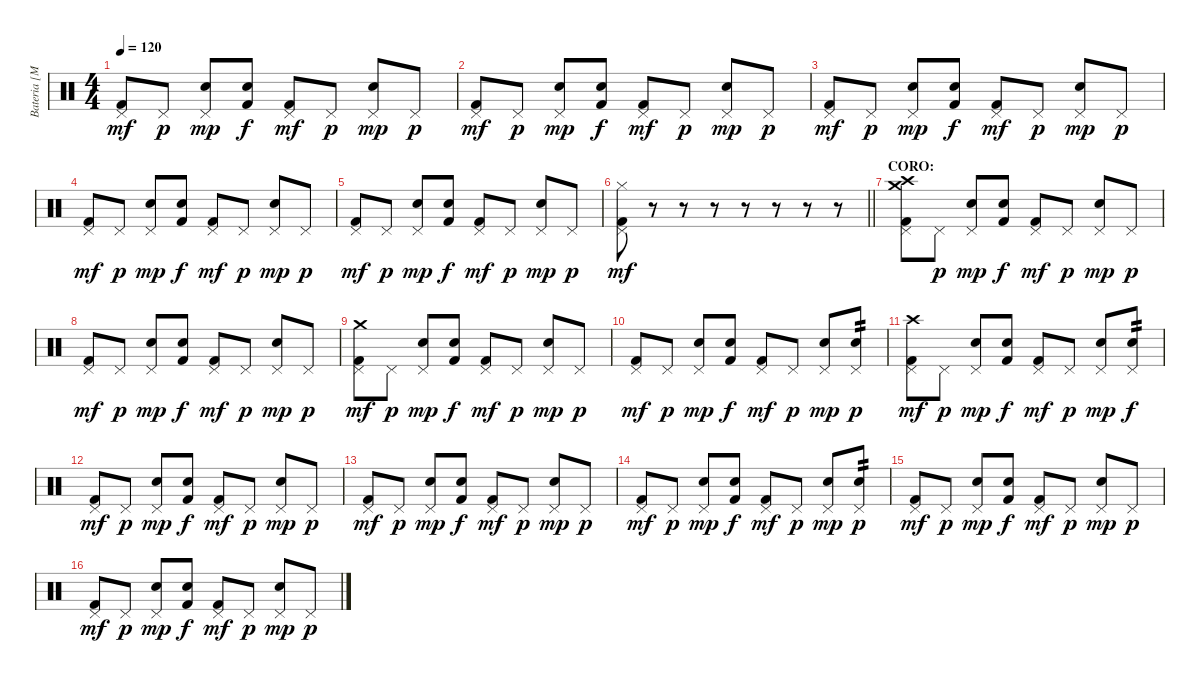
\track ("Bateria [Mauricio Basualto]" "Bateria [M") {instrument percussion}
\staff {score}
\articulation defaults
\ts (4 4)
\tempo 120
\clef neutral
\ks c
("Kick (hit) 2" "Pedal Hi-Hat (hit)").8{dy mf} "Pedal Hi-Hat (hit)".8{dy p} ("Electric Snare (hit)" "Pedal Hi-Hat (hit)").8{dy mp} ("Electric Snare (hit)" "Kick (hit) 2").8{dy f} ("Kick (hit) 2" "Pedal Hi-Hat (hit)").8{dy mf} "Pedal Hi-Hat (hit)".8{dy p} ("Electric Snare (hit)" "Pedal Hi-Hat (hit)").8{dy mp} "Pedal Hi-Hat (hit)".8{dy p} |
("Kick (hit) 2" "Pedal Hi-Hat (hit)").8{dy mf} "Pedal Hi-Hat (hit)".8{dy p} ("Electric Snare (hit)" "Pedal Hi-Hat (hit)").8{dy mp} ("Electric Snare (hit)" "Kick (hit) 2").8{dy f} ("Kick (hit) 2" "Pedal Hi-Hat (hit)").8{dy mf} "Pedal Hi-Hat (hit)".8{dy p} ("Electric Snare (hit)" "Pedal Hi-Hat (hit)").8{dy mp} "Pedal Hi-Hat (hit)".8{dy p} |
("Kick (hit) 2" "Pedal Hi-Hat (hit)").8{dy mf} "Pedal Hi-Hat (hit)".8{dy p} ("Electric Snare (hit)" "Pedal Hi-Hat (hit)").8{dy mp} ("Electric Snare (hit)" "Kick (hit) 2").8{dy f} ("Kick (hit) 2" "Pedal Hi-Hat (hit)").8{dy mf} "Pedal Hi-Hat (hit)".8{dy p} ("Electric Snare (hit)" "Pedal Hi-Hat (hit)").8{dy mp} "Pedal Hi-Hat (hit)".8{dy p} |
("Kick (hit) 2" "Pedal Hi-Hat (hit)").8{dy mf} "Pedal Hi-Hat (hit)".8{dy p} ("Electric Snare (hit)" "Pedal Hi-Hat (hit)").8{dy mp} ("Electric Snare (hit)" "Kick (hit) 2").8{dy f} ("Kick (hit) 2" "Pedal Hi-Hat (hit)").8{dy mf} "Pedal Hi-Hat (hit)".8{dy p} ("Electric Snare (hit)" "Pedal Hi-Hat (hit)").8{dy mp} "Pedal Hi-Hat (hit)".8{dy p} |
("Kick (hit) 2" "Pedal Hi-Hat (hit)").8{dy mf} "Pedal Hi-Hat (hit)".8{dy p} ("Electric Snare (hit)" "Pedal Hi-Hat (hit)").8{dy mp} ("Electric Snare (hit)" "Kick (hit) 2").8{dy f} ("Kick (hit) 2" "Pedal Hi-Hat (hit)").8{dy mf} "Pedal Hi-Hat (hit)".8{dy p} ("Electric Snare (hit)" "Pedal Hi-Hat (hit)").8{dy mp} "Pedal Hi-Hat (hit)".8{dy p} |
\barLineRight lightlight
("Kick (hit) 2" "Hi-Hat (closed)" "Pedal Hi-Hat (hit)").8{dy mf} r.8 r.8 r.8 r.8 r.8 r.8 r.8 |
\section ("" "CORO:")
("Kick (hit) 2" "Pedal Hi-Hat (hit)" "Crash medium (hit)" "Crash high (hit)").8 "Pedal Hi-Hat (hit)".8{dy p} ("Electric Snare (hit)" "Pedal Hi-Hat (hit)").8{dy mp} ("Electric Snare (hit)" "Kick (hit) 2").8{dy f} ("Kick (hit) 2" "Pedal Hi-Hat (hit)").8{dy mf} "Pedal Hi-Hat (hit)".8{dy p} ("Electric Snare (hit)" "Pedal Hi-Hat (hit)").8{dy mp} "Pedal Hi-Hat (hit)".8{dy p} |
("Kick (hit) 2" "Pedal Hi-Hat (hit)").8{dy mf} "Pedal Hi-Hat (hit)".8{dy p} ("Electric Snare (hit)" "Pedal Hi-Hat (hit)").8{dy mp} ("Electric Snare (hit)" "Kick (hit) 2").8{dy f} ("Kick (hit) 2" "Pedal Hi-Hat (hit)").8{dy mf} "Pedal Hi-Hat (hit)".8{dy p} ("Electric Snare (hit)" "Pedal Hi-Hat (hit)").8{dy mp} "Pedal Hi-Hat (hit)".8{dy p} |
("Kick (hit) 2" "Pedal Hi-Hat (hit)" "Crash medium (hit)").8{dy mf} "Pedal Hi-Hat (hit)".8{dy p} ("Electric Snare (hit)" "Pedal Hi-Hat (hit)").8{dy mp} ("Electric Snare (hit)" "Kick (hit) 2").8{dy f} ("Kick (hit) 2" "Pedal Hi-Hat (hit)").8{dy mf} "Pedal Hi-Hat (hit)".8{dy p} ("Electric Snare (hit)" "Pedal Hi-Hat (hit)").8{dy mp} "Pedal Hi-Hat (hit)".8{dy p} |
("Kick (hit) 2" "Pedal Hi-Hat (hit)").8{dy mf} "Pedal Hi-Hat (hit)".8{dy p} ("Electric Snare (hit)" "Pedal Hi-Hat (hit)").8{dy mp} ("Electric Snare (hit)" "Kick (hit) 2").8{dy f} ("Kick (hit) 2" "Pedal Hi-Hat (hit)").8{dy mf} "Pedal Hi-Hat (hit)".8{dy p} ("Electric Snare (hit)" "Pedal Hi-Hat (hit)").8{dy mp} ("Pedal Hi-Hat (hit)" "Electric Snare (hit)").8{tp 2 dy p} |
("Kick (hit) 2" "Pedal Hi-Hat (hit)" "Crash high (hit)").8{dy mf} "Pedal Hi-Hat (hit)".8{dy p} ("Electric Snare (hit)" "Pedal Hi-Hat (hit)").8{dy mp} ("Electric Snare (hit)" "Kick (hit) 2").8{dy f} ("Kick (hit) 2" "Pedal Hi-Hat (hit)").8{dy mf} "Pedal Hi-Hat (hit)".8{dy p} ("Electric Snare (hit)" "Pedal Hi-Hat (hit)").8{dy mp} ("Pedal Hi-Hat (hit)" "Electric Snare (hit)").8{tp 2 dy f} |
("Kick (hit) 2" "Pedal Hi-Hat (hit)").8{dy mf} "Pedal Hi-Hat (hit)".8{dy p} ("Electric Snare (hit)" "Pedal Hi-Hat (hit)").8{dy mp} ("Electric Snare (hit)" "Kick (hit) 2").8{dy f} ("Kick (hit) 2" "Pedal Hi-Hat (hit)").8{dy mf} "Pedal Hi-Hat (hit)".8{dy p} ("Electric Snare (hit)" "Pedal Hi-Hat (hit)").8{dy mp} "Pedal Hi-Hat (hit)".8{dy p} |
("Kick (hit) 2" "Pedal Hi-Hat (hit)").8{dy mf} "Pedal Hi-Hat (hit)".8{dy p} ("Electric Snare (hit)" "Pedal Hi-Hat (hit)").8{dy mp} ("Electric Snare (hit)" "Kick (hit) 2").8{dy f} ("Kick (hit) 2" "Pedal Hi-Hat (hit)").8{dy mf} "Pedal Hi-Hat (hit)".8{dy p} ("Electric Snare (hit)" "Pedal Hi-Hat (hit)").8{dy mp} "Pedal Hi-Hat (hit)".8{dy p} |
("Kick (hit) 2" "Pedal Hi-Hat (hit)").8{dy mf} "Pedal Hi-Hat (hit)".8{dy p} ("Electric Snare (hit)" "Pedal Hi-Hat (hit)").8{dy mp} ("Electric Snare (hit)" "Kick (hit) 2").8{dy f} ("Kick (hit) 2" "Pedal Hi-Hat (hit)").8{dy mf} "Pedal Hi-Hat (hit)".8{dy p} ("Electric Snare (hit)" "Pedal Hi-Hat (hit)").8{dy mp} ("Pedal Hi-Hat (hit)" "Electric Snare (hit)").8{tp 2 dy p} |
("Kick (hit) 2" "Pedal Hi-Hat (hit)").8{dy mf} "Pedal Hi-Hat (hit)".8{dy p} ("Electric Snare (hit)" "Pedal Hi-Hat (hit)").8{dy mp} ("Electric Snare (hit)" "Kick (hit) 2").8{dy f} ("Kick (hit) 2" "Pedal Hi-Hat (hit)").8{dy mf} "Pedal Hi-Hat (hit)".8{dy p} ("Electric Snare (hit)" "Pedal Hi-Hat (hit)").8{dy mp} "Pedal Hi-Hat (hit)".8{dy p} |
("Kick (hit) 2" "Pedal Hi-Hat (hit)").8{dy mf} "Pedal Hi-Hat (hit)".8{dy p} ("Electric Snare (hit)" "Pedal Hi-Hat (hit)").8{dy mp} ("Electric Snare (hit)" "Kick (hit) 2").8{dy f} ("Kick (hit) 2" "Pedal Hi-Hat (hit)").8{dy mf} "Pedal Hi-Hat (hit)".8{dy p} ("Electric Snare (hit)" "Pedal Hi-Hat (hit)").8{dy mp} "Pedal Hi-Hat (hit)".8{dy p}
